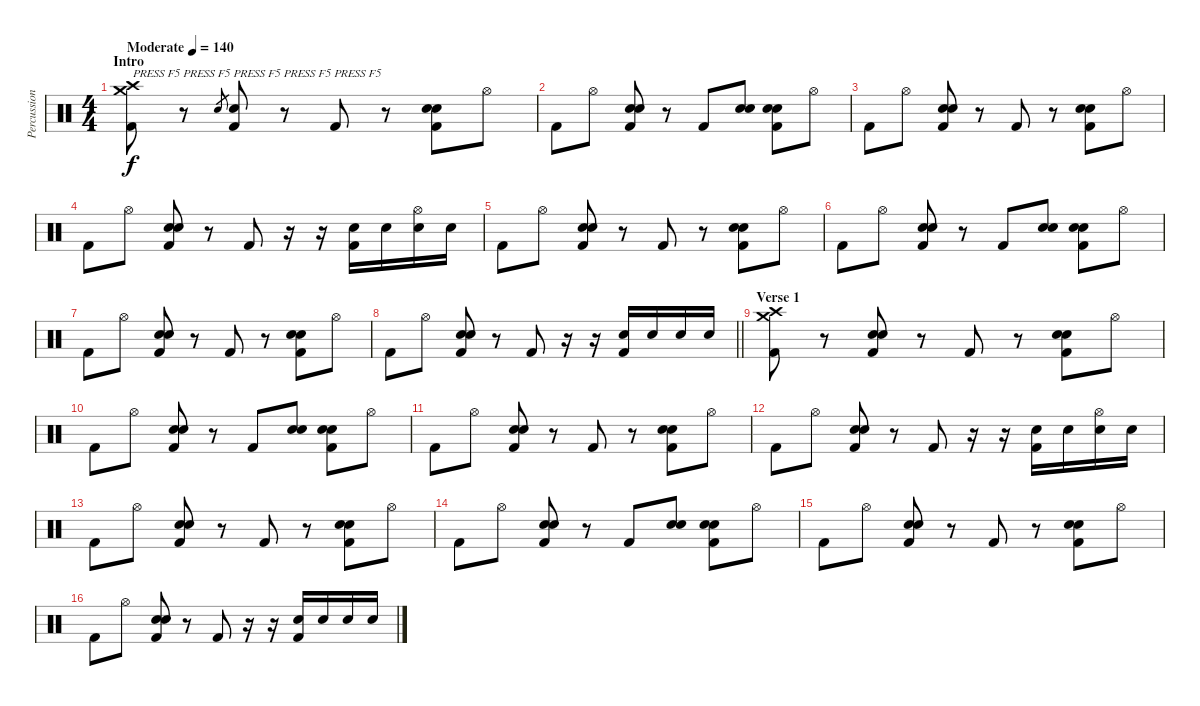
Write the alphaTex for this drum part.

\track ("Percussion" "Percussion") {instrument percussion}
\staff {score}
\articulation defaults
\ts (4 4)
\section ("" "Intro")
\tempo (140 "Moderate")
\clef neutral
\ks c
("Crash high (hit)" "Crash medium (hit)" "Kick (hit) 2").8{txt "PRESS F5 PRESS F5 PRESS F5 PRESS F5 PRESS F5" dy f} r.8 "Electric Snare (hit)".8{gr} ("Electric Snare (hit)" "Kick (hit) 2").8 r.8 "Kick (hit) 2".8 r.8 ("Electric Snare (hit)" "Electric Snare (hit)" "Kick (hit) 2").8 "Hi-Hat (open)".8 |
"Kick (hit) 2".8 "Hi-Hat (open)".8 ("Electric Snare (hit)" "Electric Snare (hit)" "Kick (hit) 2").8 r.8 "Kick (hit) 2".8 ("Electric Snare (hit)" "Electric Snare (hit)").8 ("Electric Snare (hit)" "Electric Snare (hit)" "Kick (hit) 2").8 "Hi-Hat (open)".8 |
"Kick (hit) 2".8 "Hi-Hat (open)".8 ("Electric Snare (hit)" "Electric Snare (hit)" "Kick (hit) 2").8 r.8 "Kick (hit) 2".8 r.8 ("Electric Snare (hit)" "Electric Snare (hit)" "Kick (hit) 2").8 "Hi-Hat (open)".8 |
"Kick (hit) 2".8 "Hi-Hat (open)".8 ("Electric Snare (hit)" "Electric Snare (hit)" "Kick (hit) 2").8 r.8 "Kick (hit) 2".8 r.16 r.16 ("Electric Snare (hit)" "Kick (hit) 2").16 "Electric Snare (hit)".16 ("Hi-Hat (open)" "Electric Snare (hit)").16 "Electric Snare (hit)".16 |
"Kick (hit) 2".8 "Hi-Hat (open)".8 ("Electric Snare (hit)" "Electric Snare (hit)" "Kick (hit) 2").8 r.8 "Kick (hit) 2".8 r.8 ("Electric Snare (hit)" "Electric Snare (hit)" "Kick (hit) 2").8 "Hi-Hat (open)".8 |
"Kick (hit) 2".8 "Hi-Hat (open)".8 ("Electric Snare (hit)" "Electric Snare (hit)" "Kick (hit) 2").8 r.8 "Kick (hit) 2".8 ("Electric Snare (hit)" "Electric Snare (hit)").8 ("Electric Snare (hit)" "Electric Snare (hit)" "Kick (hit) 2").8 "Hi-Hat (open)".8 |
"Kick (hit) 2".8 "Hi-Hat (open)".8 ("Electric Snare (hit)" "Electric Snare (hit)" "Kick (hit) 2").8 r.8 "Kick (hit) 2".8 r.8 ("Electric Snare (hit)" "Electric Snare (hit)" "Kick (hit) 2").8 "Hi-Hat (open)".8 |
\barLineRight lightlight "Kick (hit) 2".8 "Hi-Hat (open)".8
("Electric Snare (hit)" "Electric Snare (hit)" "Kick (hit) 2").8 r.8 "Kick (hit) 2".8 r.16 r.16 ("Electric Snare (hit)" "Kick (hit) 2").16 "Electric Snare (hit)".16 "Electric Snare (hit)".16 "Electric Snare (hit)".16 |
\section ("" "Verse 1")
("Crash high (hit)" "Crash medium (hit)" "Kick (hit) 2").8 r.8 ("Electric Snare (hit)" "Electric Snare (hit)" "Kick (hit) 2").8 r.8 "Kick (hit) 2".8 r.8 ("Electric Snare (hit)" "Electric Snare (hit)" "Kick (hit) 2").8 "Hi-Hat (open)".8 |
"Kick (hit) 2".8 "Hi-Hat (open)".8 ("Electric Snare (hit)" "Electric Snare (hit)" "Kick (hit) 2").8 r.8 "Kick (hit) 2".8 ("Electric Snare (hit)" "Electric Snare (hit)").8 ("Electric Snare (hit)" "Electric Snare (hit)" "Kick (hit) 2").8 "Hi-Hat (open)".8 |
"Kick (hit) 2".8 "Hi-Hat (open)".8 ("Electric Snare (hit)" "Electric Snare (hit)" "Kick (hit) 2").8 r.8 "Kick (hit) 2".8 r.8 ("Electric Snare (hit)" "Electric Snare (hit)" "Kick (hit) 2").8 "Hi-Hat (open)".8 |
"Kick (hit) 2".8 "Hi-Hat (open)".8 ("Electric Snare (hit)" "Electric Snare (hit)" "Kick (hit) 2").8 r.8 "Kick (hit) 2".8 r.16 r.16 ("Electric Snare (hit)" "Kick (hit) 2").16 "Electric Snare (hit)".16 ("Hi-Hat (open)" "Electric Snare (hit)").16 "Electric Snare (hit)".16 |
"Kick (hit) 2".8 "Hi-Hat (open)".8 ("Electric Snare (hit)" "Electric Snare (hit)" "Kick (hit) 2").8 r.8 "Kick (hit) 2".8 r.8 ("Electric Snare (hit)" "Electric Snare (hit)" "Kick (hit) 2").8 "Hi-Hat (open)".8 |
"Kick (hit) 2".8 "Hi-Hat (open)".8 ("Electric Snare (hit)" "Electric Snare (hit)" "Kick (hit) 2").8 r.8 "Kick (hit) 2".8 ("Electric Snare (hit)" "Electric Snare (hit)").8 ("Electric Snare (hit)" "Electric Snare (hit)" "Kick (hit) 2").8 "Hi-Hat (open)".8 |
"Kick (hit) 2".8 "Hi-Hat (open)".8 ("Electric Snare (hit)" "Electric Snare (hit)" "Kick (hit) 2").8 r.8 "Kick (hit) 2".8 r.8 ("Electric Snare (hit)" "Electric Snare (hit)" "Kick (hit) 2").8 "Hi-Hat (open)".8 |
"Kick (hit) 2".8 "Hi-Hat (open)".8 ("Electric Snare (hit)" "Electric Snare (hit)" "Kick (hit) 2").8 r.8 "Kick (hit) 2".8 r.16 r.16 ("Electric Snare (hit)" "Kick (hit) 2").16 "Electric Snare (hit)".16 "Electric Snare (hit)".16 "Electric Snare (hit)".16
